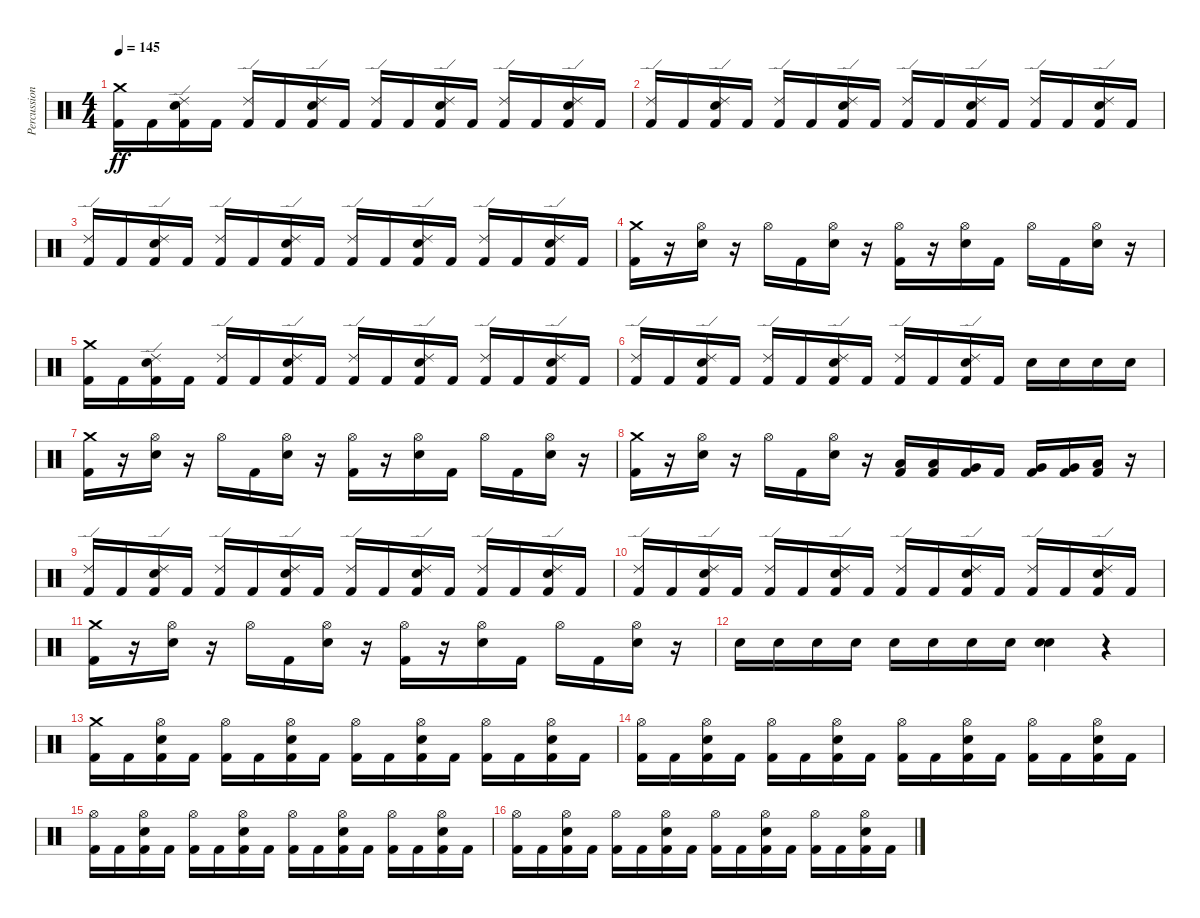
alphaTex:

\track ("Percussion" "Percussion") {instrument percussion}
\staff {score}
\articulation defaults
\ts (4 4)
\tempo 145
\clef neutral
\ks c
("Crash medium (hit)" "Kick (hit) 2").16{dy ff} "Kick (hit) 2".16 ("Electric Snare (hit)" "Ride (edge) 2" "Kick (hit) 2").16 "Kick (hit) 2".16 ("Ride (edge) 2" "Kick (hit) 2").16 "Kick (hit) 2".16 ("Electric Snare (hit)" "Ride (edge) 2" "Kick (hit) 2").16 "Kick (hit) 2".16 ("Ride (edge) 2" "Kick (hit) 2").16 "Kick (hit) 2".16 ("Electric Snare (hit)" "Ride (edge) 2" "Kick (hit) 2").16 "Kick (hit) 2".16 ("Ride (edge) 2" "Kick (hit) 2").16 "Kick (hit) 2".16 ("Electric Snare (hit)" "Ride (edge) 2" "Kick (hit) 2").16 "Kick (hit) 2".16 |
("Ride (edge) 2" "Kick (hit) 2").16 "Kick (hit) 2".16 ("Electric Snare (hit)" "Ride (edge) 2" "Kick (hit) 2").16 "Kick (hit) 2".16 ("Ride (edge) 2" "Kick (hit) 2").16 "Kick (hit) 2".16 ("Electric Snare (hit)" "Ride (edge) 2" "Kick (hit) 2").16 "Kick (hit) 2".16 ("Ride (edge) 2" "Kick (hit) 2").16 "Kick (hit) 2".16 ("Electric Snare (hit)" "Ride (edge) 2" "Kick (hit) 2").16 "Kick (hit) 2".16 ("Ride (edge) 2" "Kick (hit) 2").16 "Kick (hit) 2".16 ("Electric Snare (hit)" "Ride (edge) 2" "Kick (hit) 2").16 "Kick (hit) 2".16 |
("Ride (edge) 2" "Kick (hit) 2").16 "Kick (hit) 2".16 ("Electric Snare (hit)" "Ride (edge) 2" "Kick (hit) 2").16 "Kick (hit) 2".16 ("Ride (edge) 2" "Kick (hit) 2").16 "Kick (hit) 2".16 ("Electric Snare (hit)" "Ride (edge) 2" "Kick (hit) 2").16 "Kick (hit) 2".16 ("Ride (edge) 2" "Kick (hit) 2").16 "Kick (hit) 2".16 ("Electric Snare (hit)" "Ride (edge) 2" "Kick (hit) 2").16 "Kick (hit) 2".16 ("Ride (edge) 2" "Kick (hit) 2").16 "Kick (hit) 2".16 ("Electric Snare (hit)" "Ride (edge) 2" "Kick (hit) 2").16 "Kick (hit) 2".16 |
("Crash medium (hit)" "Kick (hit) 2").16 r.16 ("Hi-Hat (open)" "Electric Snare (hit)").16 r.16 "Hi-Hat (open)".16 "Kick (hit) 2".16 ("Hi-Hat (open)" "Electric Snare (hit)").16 r.16 ("Hi-Hat (open)" "Kick (hit) 2").16 r.16 ("Hi-Hat (open)" "Electric Snare (hit)").16 "Kick (hit) 2".16 "Hi-Hat (open)".16 "Kick (hit) 2".16 ("Hi-Hat (open)" "Electric Snare (hit)").16 r.16 |
("Crash medium (hit)" "Kick (hit) 2").16 "Kick (hit) 2".16 ("Electric Snare (hit)" "Ride (edge) 2" "Kick (hit) 2").16 "Kick (hit) 2".16 ("Ride (edge) 2" "Kick (hit) 2").16 "Kick (hit) 2".16 ("Electric Snare (hit)" "Ride (edge) 2" "Kick (hit) 2").16 "Kick (hit) 2".16 ("Ride (edge) 2" "Kick (hit) 2").16 "Kick (hit) 2".16 ("Electric Snare (hit)" "Ride (edge) 2" "Kick (hit) 2").16 "Kick (hit) 2".16 ("Ride (edge) 2" "Kick (hit) 2").16 "Kick (hit) 2".16 ("Electric Snare (hit)" "Ride (edge) 2" "Kick (hit) 2").16 "Kick (hit) 2".16 |
("Ride (edge) 2" "Kick (hit) 2").16 "Kick (hit) 2".16 ("Electric Snare (hit)" "Ride (edge) 2" "Kick (hit) 2").16 "Kick (hit) 2".16 ("Ride (edge) 2" "Kick (hit) 2").16 "Kick (hit) 2".16 ("Electric Snare (hit)" "Ride (edge) 2" "Kick (hit) 2").16 "Kick (hit) 2".16 ("Ride (edge) 2" "Kick (hit) 2").16 "Kick (hit) 2".16 ("Electric Snare (hit)" "Ride (edge) 2" "Kick (hit) 2").16 "Kick (hit) 2".16 "Electric Snare (hit)".16 "Electric Snare (hit)".16 "Electric Snare (hit)".16 "Electric Snare (hit)".16 |
("Crash medium (hit)" "Kick (hit) 2").16 r.16 ("Hi-Hat (open)" "Electric Snare (hit)").16 r.16 "Hi-Hat (open)".16 "Kick (hit) 2".16 ("Hi-Hat (open)" "Electric Snare (hit)").16 r.16 ("Hi-Hat (open)" "Kick (hit) 2").16 r.16 ("Hi-Hat (open)" "Electric Snare (hit)").16 "Kick (hit) 2".16 "Hi-Hat (open)".16 "Kick (hit) 2".16 ("Hi-Hat (open)" "Electric Snare (hit)").16 r.16 |
("Crash medium (hit)" "Kick (hit) 2").16 r.16 ("Hi-Hat (open)" "Electric Snare (hit)").16 r.16 "Hi-Hat (open)".16 "Kick (hit) 2".16 ("Hi-Hat (open)" "Electric Snare (hit)").16 r.16 ("Low Tom (hit)" "Kick (hit) 2").16 ("Low Tom (hit)" "Kick (hit) 2").16 ("Very Low Tom (hit)" "Kick (hit) 2").16 "Kick (hit) 2".16 ("Very Low Tom (hit)" "Kick (hit) 2").16 ("Very Low Tom (hit)" "Kick (hit) 2").16 ("Low Floor Tom (hit)" "Kick (hit) 2").16 r.16 |
("Ride (edge) 2" "Kick (hit) 2").16 "Kick (hit) 2".16 ("Electric Snare (hit)" "Ride (edge) 2" "Kick (hit) 2").16 "Kick (hit) 2".16 ("Ride (edge) 2" "Kick (hit) 2").16 "Kick (hit) 2".16 ("Electric Snare (hit)" "Ride (edge) 2" "Kick (hit) 2").16 "Kick (hit) 2".16 ("Ride (edge) 2" "Kick (hit) 2").16 "Kick (hit) 2".16 ("Electric Snare (hit)" "Ride (edge) 2" "Kick (hit) 2").16 "Kick (hit) 2".16 ("Ride (edge) 2" "Kick (hit) 2").16 "Kick (hit) 2".16 ("Electric Snare (hit)" "Ride (edge) 2" "Kick (hit) 2").16 "Kick (hit) 2".16 |
("Ride (edge) 2" "Kick (hit) 2").16 "Kick (hit) 2".16 ("Electric Snare (hit)" "Ride (edge) 2" "Kick (hit) 2").16 "Kick (hit) 2".16 ("Ride (edge) 2" "Kick (hit) 2").16 "Kick (hit) 2".16 ("Electric Snare (hit)" "Ride (edge) 2" "Kick (hit) 2").16 "Kick (hit) 2".16 ("Ride (edge) 2" "Kick (hit) 2").16 "Kick (hit) 2".16 ("Electric Snare (hit)" "Ride (edge) 2" "Kick (hit) 2").16 "Kick (hit) 2".16 ("Ride (edge) 2" "Kick (hit) 2").16 "Kick (hit) 2".16 ("Electric Snare (hit)" "Ride (edge) 2" "Kick (hit) 2").16 "Kick (hit) 2".16 |
("Crash medium (hit)" "Kick (hit) 2").16 r.16 ("Hi-Hat (open)" "Electric Snare (hit)").16 r.16 "Hi-Hat (open)".16 "Kick (hit) 2".16 ("Hi-Hat (open)" "Electric Snare (hit)").16 r.16 ("Hi-Hat (open)" "Kick (hit) 2").16 r.16 ("Hi-Hat (open)" "Electric Snare (hit)").16 "Kick (hit) 2".16 "Hi-Hat (open)".16 "Kick (hit) 2".16 ("Hi-Hat (open)" "Electric Snare (hit)").16 r.16 |
"Electric Snare (hit)".16 "Electric Snare (hit)".16 "Electric Snare (hit)".16 "Electric Snare (hit)".16 "Electric Snare (hit)".16 "Electric Snare (hit)".16 "Electric Snare (hit)".16 "Electric Snare (hit)".16 ("Electric Snare (hit)" "Electric Snare (hit)").4 r.4 |
("Crash medium (hit)" "Kick (hit) 2").16 "Kick (hit) 2".16 ("Electric Snare (hit)" "Hi-Hat (open)" "Kick (hit) 2").16 "Kick (hit) 2".16 ("Hi-Hat (open)" "Kick (hit) 2").16 "Kick (hit) 2".16 ("Electric Snare (hit)" "Hi-Hat (open)" "Kick (hit) 2").16 "Kick (hit) 2".16 ("Hi-Hat (open)" "Kick (hit) 2").16 "Kick (hit) 2".16 ("Electric Snare (hit)" "Hi-Hat (open)" "Kick (hit) 2").16 "Kick (hit) 2".16 ("Hi-Hat (open)" "Kick (hit) 2").16 "Kick (hit) 2".16 ("Electric Snare (hit)" "Hi-Hat (open)" "Kick (hit) 2").16 "Kick (hit) 2".16 |
("Hi-Hat (open)" "Kick (hit) 2").16 "Kick (hit) 2".16 ("Electric Snare (hit)" "Hi-Hat (open)" "Kick (hit) 2").16 "Kick (hit) 2".16 ("Hi-Hat (open)" "Kick (hit) 2").16 "Kick (hit) 2".16 ("Electric Snare (hit)" "Hi-Hat (open)" "Kick (hit) 2").16 "Kick (hit) 2".16 ("Hi-Hat (open)" "Kick (hit) 2").16 "Kick (hit) 2".16 ("Electric Snare (hit)" "Hi-Hat (open)" "Kick (hit) 2").16 "Kick (hit) 2".16 ("Hi-Hat (open)" "Kick (hit) 2").16 "Kick (hit) 2".16 ("Electric Snare (hit)" "Hi-Hat (open)" "Kick (hit) 2").16 "Kick (hit) 2".16 |
("Hi-Hat (open)" "Kick (hit) 2").16 "Kick (hit) 2".16 ("Electric Snare (hit)" "Hi-Hat (open)" "Kick (hit) 2").16 "Kick (hit) 2".16 ("Hi-Hat (open)" "Kick (hit) 2").16 "Kick (hit) 2".16 ("Electric Snare (hit)" "Hi-Hat (open)" "Kick (hit) 2").16 "Kick (hit) 2".16 ("Hi-Hat (open)" "Kick (hit) 2").16 "Kick (hit) 2".16 ("Electric Snare (hit)" "Hi-Hat (open)" "Kick (hit) 2").16 "Kick (hit) 2".16 ("Hi-Hat (open)" "Kick (hit) 2").16 "Kick (hit) 2".16 ("Electric Snare (hit)" "Hi-Hat (open)" "Kick (hit) 2").16 "Kick (hit) 2".16 |
("Hi-Hat (open)" "Kick (hit) 2").16 "Kick (hit) 2".16 ("Electric Snare (hit)" "Hi-Hat (open)" "Kick (hit) 2").16 "Kick (hit) 2".16 ("Hi-Hat (open)" "Kick (hit) 2").16 "Kick (hit) 2".16 ("Electric Snare (hit)" "Hi-Hat (open)" "Kick (hit) 2").16 "Kick (hit) 2".16 ("Hi-Hat (open)" "Kick (hit) 2").16 "Kick (hit) 2".16 ("Electric Snare (hit)" "Hi-Hat (open)" "Kick (hit) 2").16 "Kick (hit) 2".16 ("Hi-Hat (open)" "Kick (hit) 2").16 "Kick (hit) 2".16 ("Electric Snare (hit)" "Hi-Hat (open)" "Kick (hit) 2").16 "Kick (hit) 2".16
